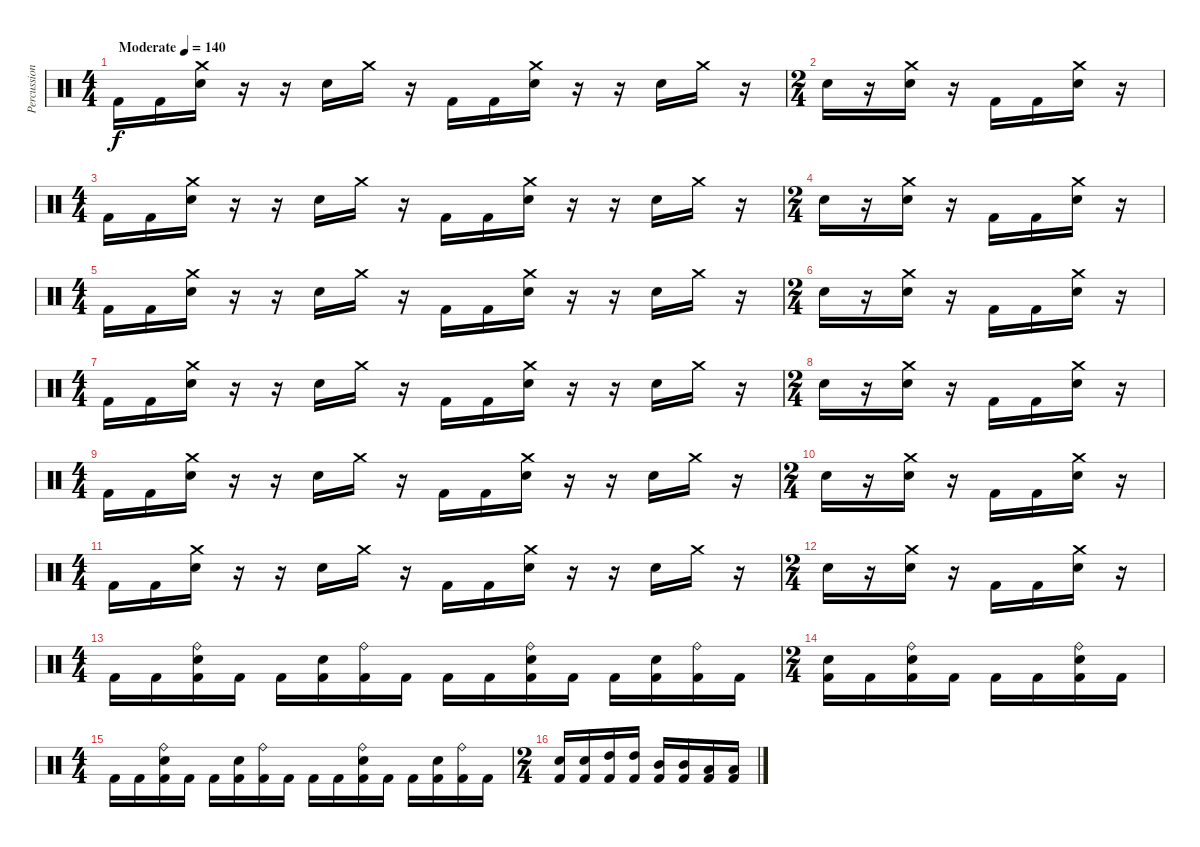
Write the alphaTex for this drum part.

\track ("Percussion" "Percussion") {instrument percussion}
\staff {score}
\articulation defaults
\ts (4 4)
\tempo (140 "Moderate")
\clef neutral
\ks c "Kick (hit) 2".16{dy f} "Kick (hit) 2".16
("Crash medium (hit)" "Electric Snare (hit)").16 r.16 r.16 "Electric Snare (hit)".16 "Crash medium (hit)".16 r.16 "Kick (hit) 2".16 "Kick (hit) 2".16 ("Crash medium (hit)" "Electric Snare (hit)").16 r.16 r.16 "Electric Snare (hit)".16 "Crash medium (hit)".16 r.16 |
\ts (2 4)
"Electric Snare (hit)".16 r.16 ("Crash medium (hit)" "Electric Snare (hit)").16 r.16 "Kick (hit) 2".16 "Kick (hit) 2".16 ("Crash medium (hit)" "Electric Snare (hit)").16 r.16 |
\ts (4 4)
"Kick (hit) 2".16 "Kick (hit) 2".16 ("Crash medium (hit)" "Electric Snare (hit)").16 r.16 r.16 "Electric Snare (hit)".16 "Crash medium (hit)".16 r.16 "Kick (hit) 2".16 "Kick (hit) 2".16 ("Crash medium (hit)" "Electric Snare (hit)").16 r.16 r.16 "Electric Snare (hit)".16 "Crash medium (hit)".16 r.16 |
\ts (2 4)
"Electric Snare (hit)".16 r.16 ("Crash medium (hit)" "Electric Snare (hit)").16 r.16 "Kick (hit) 2".16 "Kick (hit) 2".16 ("Crash medium (hit)" "Electric Snare (hit)").16 r.16 |
\ts (4 4)
"Kick (hit) 2".16 "Kick (hit) 2".16 ("Crash medium (hit)" "Electric Snare (hit)").16 r.16 r.16 "Electric Snare (hit)".16 "Crash medium (hit)".16 r.16 "Kick (hit) 2".16 "Kick (hit) 2".16 ("Crash medium (hit)" "Electric Snare (hit)").16 r.16 r.16 "Electric Snare (hit)".16 "Crash medium (hit)".16 r.16 |
\ts (2 4)
"Electric Snare (hit)".16 r.16 ("Crash medium (hit)" "Electric Snare (hit)").16 r.16 "Kick (hit) 2".16 "Kick (hit) 2".16 ("Crash medium (hit)" "Electric Snare (hit)").16 r.16 |
\ts (4 4)
"Kick (hit) 2".16 "Kick (hit) 2".16 ("Crash medium (hit)" "Electric Snare (hit)").16 r.16 r.16 "Electric Snare (hit)".16 "Crash medium (hit)".16 r.16 "Kick (hit) 2".16 "Kick (hit) 2".16 ("Crash medium (hit)" "Electric Snare (hit)").16 r.16 r.16 "Electric Snare (hit)".16 "Crash medium (hit)".16 r.16 |
\ts (2 4)
"Electric Snare (hit)".16 r.16 ("Crash medium (hit)" "Electric Snare (hit)").16 r.16 "Kick (hit) 2".16 "Kick (hit) 2".16 ("Crash medium (hit)" "Electric Snare (hit)").16 r.16 |
\ts (4 4)
"Kick (hit) 2".16 "Kick (hit) 2".16 ("Crash medium (hit)" "Electric Snare (hit)").16 r.16 r.16 "Electric Snare (hit)".16 "Crash medium (hit)".16 r.16 "Kick (hit) 2".16 "Kick (hit) 2".16 ("Crash medium (hit)" "Electric Snare (hit)").16 r.16 r.16 "Electric Snare (hit)".16 "Crash medium (hit)".16 r.16 |
\ts (2 4)
"Electric Snare (hit)".16 r.16 ("Crash medium (hit)" "Electric Snare (hit)").16 r.16 "Kick (hit) 2".16 "Kick (hit) 2".16 ("Crash medium (hit)" "Electric Snare (hit)").16 r.16 |
\ts (4 4)
"Kick (hit) 2".16 "Kick (hit) 2".16 ("Crash medium (hit)" "Electric Snare (hit)").16 r.16 r.16 "Electric Snare (hit)".16 "Crash medium (hit)".16 r.16 "Kick (hit) 2".16 "Kick (hit) 2".16 ("Crash medium (hit)" "Electric Snare (hit)").16 r.16 r.16 "Electric Snare (hit)".16 "Crash medium (hit)".16 r.16 |
\ts (2 4)
"Electric Snare (hit)".16 r.16 ("Crash medium (hit)" "Electric Snare (hit)").16 r.16 "Kick (hit) 2".16 "Kick (hit) 2".16 ("Crash medium (hit)" "Electric Snare (hit)").16 r.16 |
\ts (4 4)
"Kick (hit) 2".16 "Kick (hit) 2".16 ("Ride (bell)" "Kick (hit) 2" "Electric Snare (hit)").16 "Kick (hit) 2".16 "Kick (hit) 2".16 ("Kick (hit) 2" "Electric Snare (hit)").16 ("Ride (bell)" "Kick (hit) 2").16 "Kick (hit) 2".16 "Kick (hit) 2".16 "Kick (hit) 2".16 ("Ride (bell)" "Kick (hit) 2" "Electric Snare (hit)").16 "Kick (hit) 2".16 "Kick (hit) 2".16 ("Kick (hit) 2" "Electric Snare (hit)").16 ("Ride (bell)" "Kick (hit) 2").16 "Kick (hit) 2".16 |
\ts (2 4)
("Kick (hit) 2" "Electric Snare (hit)").16 "Kick (hit) 2".16 ("Ride (bell)" "Kick (hit) 2" "Electric Snare (hit)").16 "Kick (hit) 2".16 "Kick (hit) 2".16 "Kick (hit) 2".16 ("Ride (bell)" "Kick (hit) 2" "Electric Snare (hit)").16 "Kick (hit) 2".16 |
\ts (4 4)
"Kick (hit) 2".16 "Kick (hit) 2".16 ("Ride (bell)" "Kick (hit) 2" "Electric Snare (hit)").16 "Kick (hit) 2".16 "Kick (hit) 2".16 ("Kick (hit) 2" "Electric Snare (hit)").16 ("Ride (bell)" "Kick (hit) 2").16 "Kick (hit) 2".16 "Kick (hit) 2".16 "Kick (hit) 2".16 ("Ride (bell)" "Kick (hit) 2" "Electric Snare (hit)").16 "Kick (hit) 2".16 "Kick (hit) 2".16 ("Kick (hit) 2" "Electric Snare (hit)").16 ("Ride (bell)" "Kick (hit) 2").16 "Kick (hit) 2".16 |
\ts (2 4)
("Kick (hit) 2" "Electric Snare (hit)").16 ("Kick (hit) 2" "Electric Snare (hit)").16 ("Kick (hit) 2" "High Tom (hit)").16 ("Kick (hit) 2" "High Tom (hit)").16 ("Kick (hit) 2" "Mid Tom (hit)").16 ("Kick (hit) 2" "Mid Tom (hit)").16 ("Kick (hit) 2" "Low Tom (hit)").16 ("Kick (hit) 2" "Low Tom (hit)").16
